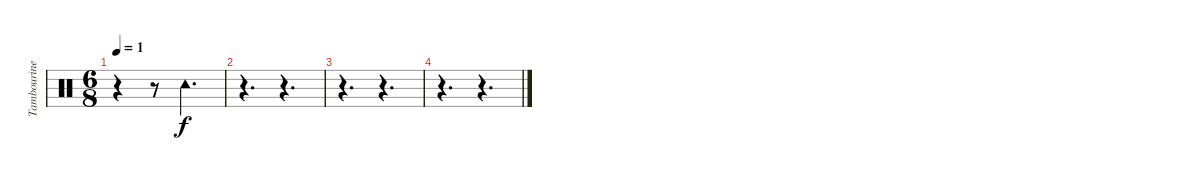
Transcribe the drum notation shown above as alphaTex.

\track ("Tambourine" "Tambourine") {instrument percussion}
\staff {score}
\articulation defaults
\ts (6 8)
\tempo 1
\clef neutral
\ks c
r.4{dy f} r.8 "Tambourine (hit)".4{d} |
r.4{d} r.4{d} |
r.4{d} r.4{d} |
r.4{d} r.4{d}
